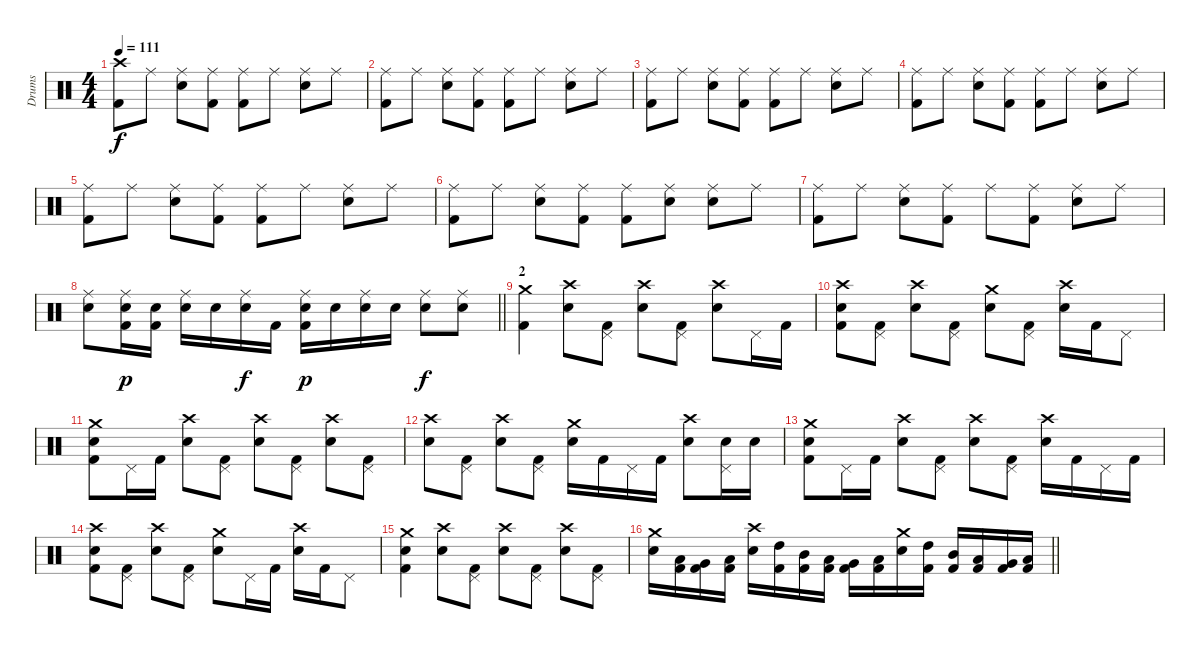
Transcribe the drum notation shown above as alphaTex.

\track ("Drums" "Drums") {instrument percussion}
\staff {score}
\articulation defaults
\ts (4 4)
\tempo 111
\clef neutral
\ks c
("Crash high (hit)" "Kick (hit) 2").8{dy f} "Ride (middle)".8 ("Ride (middle)" "Snare (hit) 2").8 ("Ride (middle)" "Kick (hit) 2").8 ("Ride (middle)" "Kick (hit) 2").8 "Ride (middle)".8 ("Ride (middle)" "Snare (hit) 2").8 "Ride (middle)".8 |
("Ride (middle)" "Kick (hit) 2").8 "Ride (middle)".8 ("Ride (middle)" "Snare (hit) 2").8 ("Ride (middle)" "Kick (hit) 2").8 ("Ride (middle)" "Kick (hit) 2").8 "Ride (middle)".8 ("Ride (middle)" "Snare (hit) 2").8 "Ride (middle)".8 |
("Ride (middle)" "Kick (hit) 2").8 "Ride (middle)".8 ("Ride (middle)" "Snare (hit) 2").8 ("Ride (middle)" "Kick (hit) 2").8 ("Ride (middle)" "Kick (hit) 2").8 "Ride (middle)".8 ("Ride (middle)" "Snare (hit) 2").8 "Ride (middle)".8 |
("Ride (middle)" "Kick (hit) 2").8 "Ride (middle)".8 ("Ride (middle)" "Snare (hit) 2").8 ("Ride (middle)" "Kick (hit) 2").8 ("Ride (middle)" "Kick (hit) 2").8 "Ride (middle)".8 ("Ride (middle)" "Snare (hit) 2").8 "Ride (middle)".8 |
("Ride (middle)" "Kick (hit) 2").8 "Ride (middle)".8 ("Ride (middle)" "Snare (hit) 2").8 ("Ride (middle)" "Kick (hit) 2").8 ("Ride (middle)" "Kick (hit) 2").8 "Ride (middle)".8 ("Ride (middle)" "Snare (hit) 2").8 "Ride (middle)".8 |
("Ride (middle)" "Kick (hit) 2").8 "Ride (middle)".8 ("Ride (middle)" "Snare (hit) 2").8 ("Ride (middle)" "Kick (hit) 2").8 ("Ride (middle)" "Kick (hit) 2").8 ("Ride (middle)" "Snare (hit) 2").8 ("Ride (middle)" "Snare (hit) 2").8 "Ride (middle)".8 |
("Ride (middle)" "Kick (hit) 2").8 "Ride (middle)".8 ("Ride (middle)" "Snare (hit) 2").8 ("Ride (middle)" "Kick (hit) 2").8 "Ride (middle)".8 ("Ride (middle)" "Kick (hit) 2").8 ("Ride (middle)" "Snare (hit) 2").8 "Ride (middle)".8 |
\barLineRight lightlight
("Ride (middle)" "Snare (hit) 2").8 ("Ride (middle)" "Snare (hit) 2" "Kick (hit) 2").16{dy p} ("Snare (hit) 2" "Kick (hit) 2").16 ("Ride (middle)" "Snare (hit) 2").16 "Snare (hit) 2".16 ("Ride (middle)" "Snare (hit) 2").16{dy f} "Kick (hit) 2".16 ("Ride (middle)" "Snare (hit) 2" "Kick (hit) 2").16{dy p} "Snare (hit) 2".16 ("Ride (middle)" "Snare (hit) 2").16 "Snare (hit) 2".16 ("Ride (middle)" "Snare (hit) 2").8{dy f} ("Ride (middle)" "Snare (hit) 2").8 |
\section ("" "2")
("Crash medium (hit)" "Kick (hit) 2").4 ("Crash high (hit)" "Snare (hit) 2").8 ("Pedal Hi-Hat (hit)" "Kick (hit) 2").8 ("Crash high (hit)" "Snare (hit) 2").8 ("Pedal Hi-Hat (hit)" "Kick (hit) 2").8 ("Crash high (hit)" "Snare (hit) 2").8 "Pedal Hi-Hat (hit)".16 "Kick (hit) 2".16 |
("Crash high (hit)" "Snare (hit) 2" "Kick (hit) 2").8 ("Pedal Hi-Hat (hit)" "Kick (hit) 2").8 ("Crash high (hit)" "Snare (hit) 2").8 ("Pedal Hi-Hat (hit)" "Kick (hit) 2").8 ("Crash medium (hit)" "Snare (hit) 2").8 ("Pedal Hi-Hat (hit)" "Kick (hit) 2").8 ("Crash high (hit)" "Snare (hit) 2").16 "Kick (hit) 2".16 "Pedal Hi-Hat (hit)".8 |
("Crash medium (hit)" "Snare (hit) 2" "Kick (hit) 2").8 "Pedal Hi-Hat (hit)".16 "Kick (hit) 2".16 ("Crash high (hit)" "Snare (hit) 2").8 ("Pedal Hi-Hat (hit)" "Kick (hit) 2").8 ("Crash high (hit)" "Snare (hit) 2").8 ("Pedal Hi-Hat (hit)" "Kick (hit) 2").8 ("Crash high (hit)" "Snare (hit) 2").8 ("Pedal Hi-Hat (hit)" "Kick (hit) 2").8 |
("Crash high (hit)" "Snare (hit) 2").8 ("Pedal Hi-Hat (hit)" "Kick (hit) 2").8 ("Crash high (hit)" "Snare (hit) 2").8 ("Pedal Hi-Hat (hit)" "Kick (hit) 2").8 ("Crash medium (hit)" "Snare (hit) 2").16 "Kick (hit) 2".16 "Pedal Hi-Hat (hit)".16 "Kick (hit) 2".16 ("Crash high (hit)" "Snare (hit) 2").8 ("Pedal Hi-Hat (hit)" "Snare (hit) 2").16 "Snare (hit) 2".16 |
("Crash medium (hit)" "Snare (hit) 2" "Kick (hit) 2").8 "Pedal Hi-Hat (hit)".16 "Kick (hit) 2".16 ("Crash high (hit)" "Snare (hit) 2").8 ("Pedal Hi-Hat (hit)" "Kick (hit) 2").8 ("Crash high (hit)" "Snare (hit) 2").8 ("Pedal Hi-Hat (hit)" "Kick (hit) 2").8 ("Crash high (hit)" "Snare (hit) 2").16 "Kick (hit) 2".16 "Pedal Hi-Hat (hit)".16 "Kick (hit) 2".16 |
("Crash high (hit)" "Snare (hit) 2" "Kick (hit) 2").8 ("Pedal Hi-Hat (hit)" "Kick (hit) 2").8 ("Crash high (hit)" "Snare (hit) 2").8 ("Pedal Hi-Hat (hit)" "Kick (hit) 2").8 ("Crash medium (hit)" "Snare (hit) 2").8 "Pedal Hi-Hat (hit)".16 "Kick (hit) 2".16 ("Crash high (hit)" "Snare (hit) 2").16 "Kick (hit) 2".16 "Pedal Hi-Hat (hit)".8 |
("Crash medium (hit)" "Snare (hit) 2" "Kick (hit) 2").4 ("Crash high (hit)" "Snare (hit) 2").8 ("Pedal Hi-Hat (hit)" "Kick (hit) 2").8 ("Crash high (hit)" "Snare (hit) 2").8 ("Pedal Hi-Hat (hit)" "Kick (hit) 2").8 ("Crash high (hit)" "Snare (hit) 2").8 ("Pedal Hi-Hat (hit)" "Kick (hit) 2").8 |
\barLineRight lightlight
("Crash medium (hit)" "Snare (hit) 2").16 ("Low Floor Tom (hit)" "Kick (hit) 2").16 ("Very Low Tom (hit)" "Kick (hit) 2").16 ("Low Floor Tom (hit)" "Kick (hit) 2").16 ("Crash high (hit)" "Snare (hit) 2").16 ("High Tom (hit)" "Kick (hit) 2").16 ("Mid Tom (hit)" "Kick (hit) 2").16 ("Low Tom (hit)" "Kick (hit) 2").16 ("Very Low Tom (hit)" "Kick (hit) 2").16 ("Low Floor Tom (hit)" "Kick (hit) 2").16 ("Crash medium (hit)" "Snare (hit) 2").16 ("High Tom (hit)" "Kick (hit) 2").16 ("Mid Tom (hit)" "Kick (hit) 2").16 ("Low Tom (hit)" "Kick (hit) 2").16 ("Very Low Tom (hit)" "Kick (hit) 2").16 ("Low Floor Tom (hit)" "Kick (hit) 2").16
